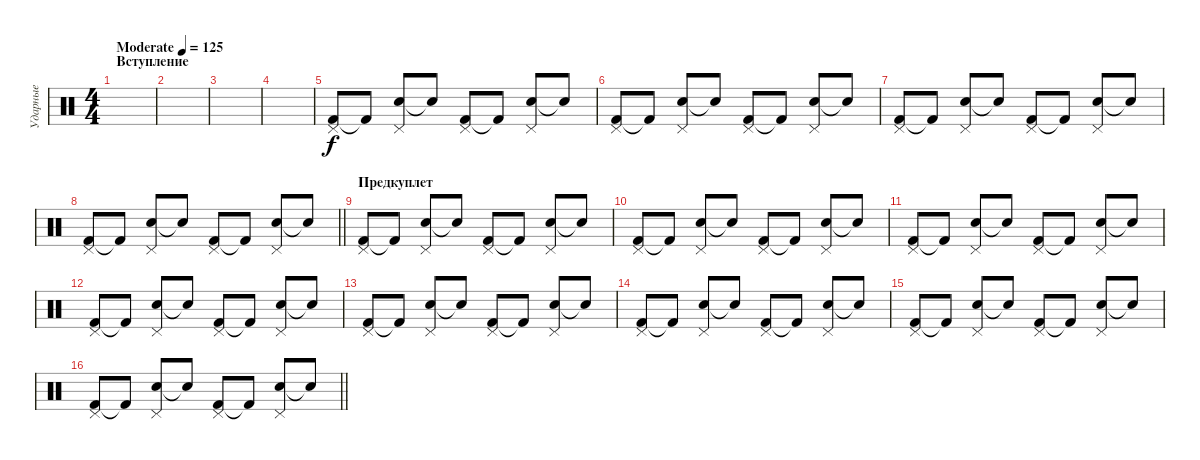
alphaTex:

\track ("Ударные" "Ударные") {instrument percussion}
\staff {score}
\articulation defaults
\ts (4 4)
\section ("" "Вступление")
\tempo (125 "Moderate")
\clef neutral
\ks c
|
|
|
|
("Kick (hit) 2" "Pedal Hi-Hat (hit)").8 "Kick (hit) 2"{t}.8 ("Electric Snare (hit)" "Pedal Hi-Hat (hit)").8 "Electric Snare (hit)"{t}.8 ("Kick (hit) 2" "Pedal Hi-Hat (hit)").8 "Kick (hit) 2"{t}.8 ("Electric Snare (hit)" "Pedal Hi-Hat (hit)").8 "Electric Snare (hit)"{t}.8 |
("Kick (hit) 2" "Pedal Hi-Hat (hit)").8 "Kick (hit) 2"{t}.8 ("Electric Snare (hit)" "Pedal Hi-Hat (hit)").8 "Electric Snare (hit)"{t}.8 ("Kick (hit) 2" "Pedal Hi-Hat (hit)").8 "Kick (hit) 2"{t}.8 ("Electric Snare (hit)" "Pedal Hi-Hat (hit)").8 "Electric Snare (hit)"{t}.8 |
("Kick (hit) 2" "Pedal Hi-Hat (hit)").8 "Kick (hit) 2"{t}.8 ("Electric Snare (hit)" "Pedal Hi-Hat (hit)").8 "Electric Snare (hit)"{t}.8 ("Kick (hit) 2" "Pedal Hi-Hat (hit)").8 "Kick (hit) 2"{t}.8 ("Electric Snare (hit)" "Pedal Hi-Hat (hit)").8 "Electric Snare (hit)"{t}.8 |
\barLineRight lightlight
("Kick (hit) 2" "Pedal Hi-Hat (hit)").8 "Kick (hit) 2"{t}.8 ("Electric Snare (hit)" "Pedal Hi-Hat (hit)").8 "Electric Snare (hit)"{t}.8 ("Kick (hit) 2" "Pedal Hi-Hat (hit)").8 "Kick (hit) 2"{t}.8 ("Electric Snare (hit)" "Pedal Hi-Hat (hit)").8 "Electric Snare (hit)"{t}.8 |
\section ("" "Предкуплет")
("Kick (hit) 2" "Pedal Hi-Hat (hit)").8 "Kick (hit) 2"{t}.8 ("Electric Snare (hit)" "Pedal Hi-Hat (hit)").8 "Electric Snare (hit)"{t}.8 ("Kick (hit) 2" "Pedal Hi-Hat (hit)").8 "Kick (hit) 2"{t}.8 ("Electric Snare (hit)" "Pedal Hi-Hat (hit)").8 "Electric Snare (hit)"{t}.8 |
("Kick (hit) 2" "Pedal Hi-Hat (hit)").8 "Kick (hit) 2"{t}.8 ("Electric Snare (hit)" "Pedal Hi-Hat (hit)").8 "Electric Snare (hit)"{t}.8 ("Kick (hit) 2" "Pedal Hi-Hat (hit)").8 "Kick (hit) 2"{t}.8 ("Electric Snare (hit)" "Pedal Hi-Hat (hit)").8 "Electric Snare (hit)"{t}.8 |
("Kick (hit) 2" "Pedal Hi-Hat (hit)").8 "Kick (hit) 2"{t}.8 ("Electric Snare (hit)" "Pedal Hi-Hat (hit)").8 "Electric Snare (hit)"{t}.8 ("Kick (hit) 2" "Pedal Hi-Hat (hit)").8 "Kick (hit) 2"{t}.8 ("Electric Snare (hit)" "Pedal Hi-Hat (hit)").8 "Electric Snare (hit)"{t}.8 |
("Kick (hit) 2" "Pedal Hi-Hat (hit)").8 "Kick (hit) 2"{t}.8 ("Electric Snare (hit)" "Pedal Hi-Hat (hit)").8 "Electric Snare (hit)"{t}.8 ("Kick (hit) 2" "Pedal Hi-Hat (hit)").8 "Kick (hit) 2"{t}.8 ("Electric Snare (hit)" "Pedal Hi-Hat (hit)").8 "Electric Snare (hit)"{t}.8 |
("Kick (hit) 2" "Pedal Hi-Hat (hit)").8 "Kick (hit) 2"{t}.8 ("Electric Snare (hit)" "Pedal Hi-Hat (hit)").8 "Electric Snare (hit)"{t}.8 ("Kick (hit) 2" "Pedal Hi-Hat (hit)").8 "Kick (hit) 2"{t}.8 ("Electric Snare (hit)" "Pedal Hi-Hat (hit)").8 "Electric Snare (hit)"{t}.8 |
("Kick (hit) 2" "Pedal Hi-Hat (hit)").8 "Kick (hit) 2"{t}.8 ("Electric Snare (hit)" "Pedal Hi-Hat (hit)").8 "Electric Snare (hit)"{t}.8 ("Kick (hit) 2" "Pedal Hi-Hat (hit)").8 "Kick (hit) 2"{t}.8 ("Electric Snare (hit)" "Pedal Hi-Hat (hit)").8 "Electric Snare (hit)"{t}.8 |
("Kick (hit) 2" "Pedal Hi-Hat (hit)").8 "Kick (hit) 2"{t}.8 ("Electric Snare (hit)" "Pedal Hi-Hat (hit)").8 "Electric Snare (hit)"{t}.8 ("Kick (hit) 2" "Pedal Hi-Hat (hit)").8 "Kick (hit) 2"{t}.8 ("Electric Snare (hit)" "Pedal Hi-Hat (hit)").8 "Electric Snare (hit)"{t}.8 |
\barLineRight lightlight
("Kick (hit) 2" "Pedal Hi-Hat (hit)").8 "Kick (hit) 2"{t}.8 ("Electric Snare (hit)" "Pedal Hi-Hat (hit)").8 "Electric Snare (hit)"{t}.8 ("Kick (hit) 2" "Pedal Hi-Hat (hit)").8 "Kick (hit) 2"{t}.8 ("Electric Snare (hit)" "Pedal Hi-Hat (hit)").8 "Electric Snare (hit)"{t}.8
